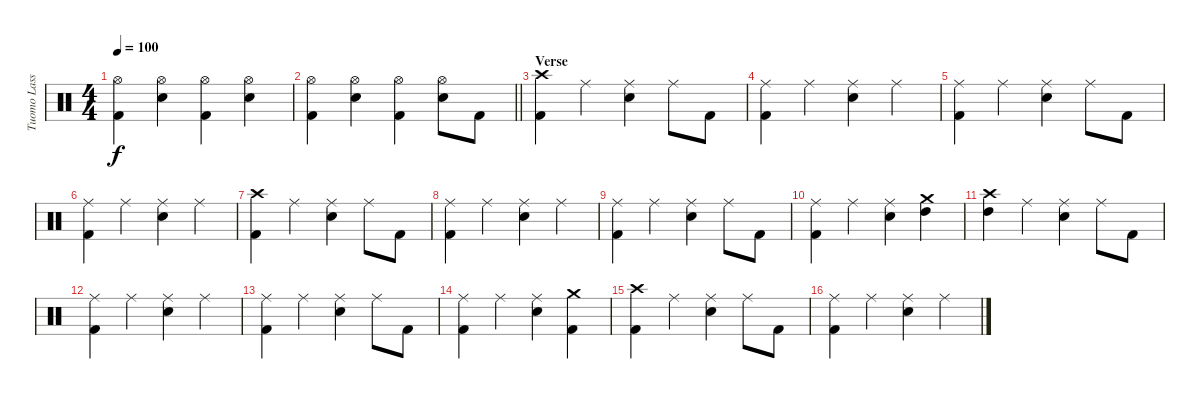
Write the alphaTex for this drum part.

\track ("Tuomo Lassila" "Tuomo Lass") {instrument percussion}
\staff {score}
\articulation defaults
\ts (4 4)
\tempo 100
\clef neutral
\ks c
("Hi-Hat (open)" "Kick (hit) 2").4{dy f} ("Hi-Hat (open)" "Electric Snare (hit)").4 ("Hi-Hat (open)" "Kick (hit) 2").4 ("Hi-Hat (open)" "Electric Snare (hit)").4 |
\barLineRight lightlight
("Hi-Hat (open)" "Kick (hit) 2").4 ("Hi-Hat (open)" "Electric Snare (hit)").4 ("Hi-Hat (open)" "Kick (hit) 2").4 ("Hi-Hat (open)" "Electric Snare (hit)").8 "Kick (hit) 2".8 |
\section ("" "Verse")
("Crash high (hit)" "Kick (hit) 2").4 "Ride (middle)".4 ("Ride (middle)" "Electric Snare (hit)").4 "Ride (middle)".8 "Kick (hit) 2".8 |
("Ride (middle)" "Kick (hit) 2").4 "Ride (middle)".4 ("Ride (middle)" "Electric Snare (hit)").4 "Ride (middle)".4 |
("Ride (middle)" "Kick (hit) 2").4 "Ride (middle)".4 ("Ride (middle)" "Electric Snare (hit)").4 "Ride (middle)".8 "Kick (hit) 2".8 |
("Ride (middle)" "Kick (hit) 2").4 "Ride (middle)".4 ("Ride (middle)" "Electric Snare (hit)").4 "Ride (middle)".4 |
("Crash high (hit)" "Kick (hit) 2").4 "Ride (middle)".4 ("Ride (middle)" "Electric Snare (hit)").4 "Ride (middle)".8 "Kick (hit) 2".8 |
("Ride (middle)" "Kick (hit) 2").4 "Ride (middle)".4 ("Ride (middle)" "Electric Snare (hit)").4 "Ride (middle)".4 |
("Ride (middle)" "Kick (hit) 2").4 "Ride (middle)".4 ("Ride (middle)" "Electric Snare (hit)").4 "Ride (middle)".8 "Kick (hit) 2".8 |
("Ride (middle)" "Kick (hit) 2").4 "Ride (middle)".4 ("Ride (middle)" "Electric Snare (hit)").4 ("Crash medium (hit)" "High Tom (hit)").4 |
("Crash high (hit)" "High Tom (hit)").4 "Ride (middle)".4 ("Ride (middle)" "Electric Snare (hit)").4 "Ride (middle)".8 "Kick (hit) 2".8 |
("Ride (middle)" "Kick (hit) 2").4 "Ride (middle)".4 ("Ride (middle)" "Electric Snare (hit)").4 "Ride (middle)".4 |
("Ride (middle)" "Kick (hit) 2").4 "Ride (middle)".4 ("Ride (middle)" "Electric Snare (hit)").4 "Ride (middle)".8 "Kick (hit) 2".8 |
("Ride (middle)" "Kick (hit) 2").4 "Ride (middle)".4 ("Ride (middle)" "Electric Snare (hit)").4 ("Crash medium (hit)" "Kick (hit) 2").4 |
("Crash high (hit)" "Kick (hit) 2").4 "Ride (middle)".4 ("Ride (middle)" "Electric Snare (hit)").4 "Ride (middle)".8 "Kick (hit) 2".8 |
("Ride (middle)" "Kick (hit) 2").4 "Ride (middle)".4 ("Ride (middle)" "Electric Snare (hit)").4 "Ride (middle)".4
